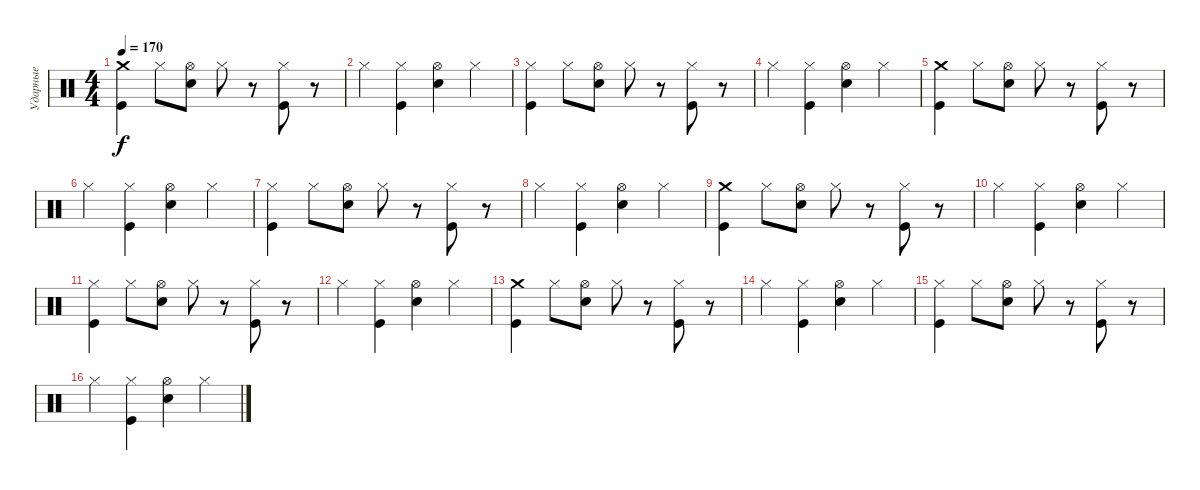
\track ("Ударные" "Ударные") {instrument percussion}
\staff {score}
\articulation defaults
\ts (4 4)
\tempo 170
\clef neutral
\ks c
("Kick (hit)" "Crash medium (hit)").4{dy f} "Hi-Hat (closed)".8 ("Snare (hit) 2" "Hi-Hat (open)").8 "Hi-Hat (closed)".8 r.8 ("Kick (hit)" "Hi-Hat (closed)").8 r.8 |
"Hi-Hat (closed)".4 ("Kick (hit)" "Hi-Hat (closed)").4 ("Snare (hit) 2" "Hi-Hat (open)").4 "Hi-Hat (closed)".4 |
("Kick (hit)" "Hi-Hat (closed)").4 "Hi-Hat (closed)".8 ("Snare (hit) 2" "Hi-Hat (open)").8 "Hi-Hat (closed)".8 r.8 ("Kick (hit)" "Hi-Hat (closed)").8 r.8 |
"Hi-Hat (closed)".4 ("Kick (hit)" "Hi-Hat (closed)").4 ("Snare (hit) 2" "Hi-Hat (open)").4 "Hi-Hat (closed)".4 |
("Kick (hit)" "Crash medium (hit)").4 "Hi-Hat (closed)".8 ("Snare (hit) 2" "Hi-Hat (open)").8 "Hi-Hat (closed)".8 r.8 ("Kick (hit)" "Hi-Hat (closed)").8 r.8 |
"Hi-Hat (closed)".4 ("Kick (hit)" "Hi-Hat (closed)").4 ("Snare (hit) 2" "Hi-Hat (open)").4 "Hi-Hat (closed)".4 |
("Kick (hit)" "Hi-Hat (closed)").4 "Hi-Hat (closed)".8 ("Snare (hit) 2" "Hi-Hat (open)").8 "Hi-Hat (closed)".8 r.8 ("Kick (hit)" "Hi-Hat (closed)").8 r.8 |
"Hi-Hat (closed)".4 ("Kick (hit)" "Hi-Hat (closed)").4 ("Snare (hit) 2" "Hi-Hat (open)").4 "Hi-Hat (closed)".4 |
("Kick (hit)" "Crash medium (hit)").4 "Hi-Hat (closed)".8 ("Snare (hit) 2" "Hi-Hat (open)").8 "Hi-Hat (closed)".8 r.8 ("Kick (hit)" "Hi-Hat (closed)").8 r.8 |
"Hi-Hat (closed)".4 ("Kick (hit)" "Hi-Hat (closed)").4 ("Snare (hit) 2" "Hi-Hat (open)").4 "Hi-Hat (closed)".4 |
("Kick (hit)" "Hi-Hat (closed)").4 "Hi-Hat (closed)".8 ("Snare (hit) 2" "Hi-Hat (open)").8 "Hi-Hat (closed)".8 r.8 ("Kick (hit)" "Hi-Hat (closed)").8 r.8 |
"Hi-Hat (closed)".4 ("Kick (hit)" "Hi-Hat (closed)").4 ("Snare (hit) 2" "Hi-Hat (open)").4 "Hi-Hat (closed)".4 |
("Kick (hit)" "Crash medium (hit)").4 "Hi-Hat (closed)".8 ("Snare (hit) 2" "Hi-Hat (open)").8 "Hi-Hat (closed)".8 r.8 ("Kick (hit)" "Hi-Hat (closed)").8 r.8 |
"Hi-Hat (closed)".4 ("Kick (hit)" "Hi-Hat (closed)").4 ("Snare (hit) 2" "Hi-Hat (open)").4 "Hi-Hat (closed)".4 |
("Kick (hit)" "Hi-Hat (closed)").4 "Hi-Hat (closed)".8 ("Snare (hit) 2" "Hi-Hat (open)").8 "Hi-Hat (closed)".8 r.8 ("Kick (hit)" "Hi-Hat (closed)").8 r.8 |
"Hi-Hat (closed)".4 ("Kick (hit)" "Hi-Hat (closed)").4 ("Snare (hit) 2" "Hi-Hat (open)").4 "Hi-Hat (closed)".4
